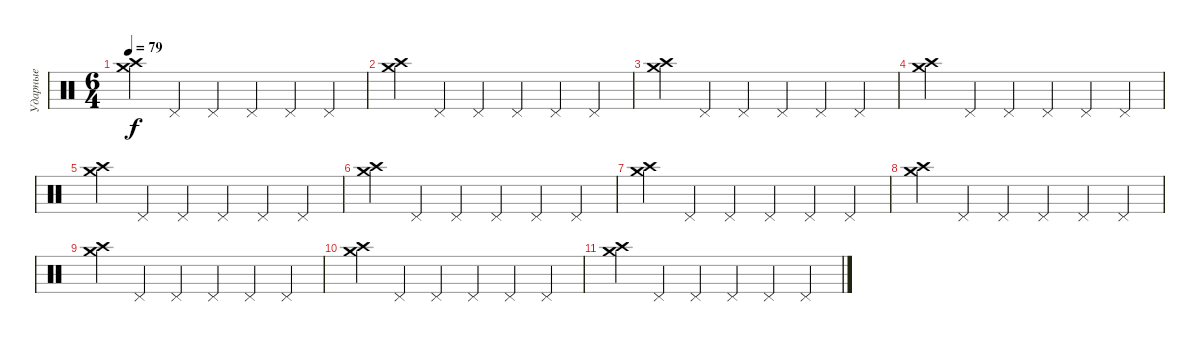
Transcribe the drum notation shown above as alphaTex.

\track ("Ударные" "Ударные") {instrument percussion}
\staff {score}
\articulation defaults
\ts (6 4)
\tempo 79
\clef neutral
\ks c
("Crash high (hit)" "Crash medium (hit)").4{dy f} "Pedal Hi-Hat (hit)".4 "Pedal Hi-Hat (hit)".4 "Pedal Hi-Hat (hit)".4 "Pedal Hi-Hat (hit)".4 "Pedal Hi-Hat (hit)".4 |
("Crash high (hit)" "Crash medium (hit)").4 "Pedal Hi-Hat (hit)".4 "Pedal Hi-Hat (hit)".4 "Pedal Hi-Hat (hit)".4 "Pedal Hi-Hat (hit)".4 "Pedal Hi-Hat (hit)".4 |
("Crash high (hit)" "Crash medium (hit)").4 "Pedal Hi-Hat (hit)".4 "Pedal Hi-Hat (hit)".4 "Pedal Hi-Hat (hit)".4 "Pedal Hi-Hat (hit)".4 "Pedal Hi-Hat (hit)".4 |
("Crash high (hit)" "Crash medium (hit)").4 "Pedal Hi-Hat (hit)".4 "Pedal Hi-Hat (hit)".4 "Pedal Hi-Hat (hit)".4 "Pedal Hi-Hat (hit)".4 "Pedal Hi-Hat (hit)".4 |
("Crash high (hit)" "Crash medium (hit)").4 "Pedal Hi-Hat (hit)".4 "Pedal Hi-Hat (hit)".4 "Pedal Hi-Hat (hit)".4 "Pedal Hi-Hat (hit)".4 "Pedal Hi-Hat (hit)".4 |
("Crash high (hit)" "Crash medium (hit)").4 "Pedal Hi-Hat (hit)".4 "Pedal Hi-Hat (hit)".4 "Pedal Hi-Hat (hit)".4 "Pedal Hi-Hat (hit)".4 "Pedal Hi-Hat (hit)".4 |
("Crash high (hit)" "Crash medium (hit)").4 "Pedal Hi-Hat (hit)".4 "Pedal Hi-Hat (hit)".4 "Pedal Hi-Hat (hit)".4 "Pedal Hi-Hat (hit)".4 "Pedal Hi-Hat (hit)".4 |
("Crash high (hit)" "Crash medium (hit)").4 "Pedal Hi-Hat (hit)".4 "Pedal Hi-Hat (hit)".4 "Pedal Hi-Hat (hit)".4 "Pedal Hi-Hat (hit)".4 "Pedal Hi-Hat (hit)".4 |
("Crash high (hit)" "Crash medium (hit)").4 "Pedal Hi-Hat (hit)".4 "Pedal Hi-Hat (hit)".4 "Pedal Hi-Hat (hit)".4 "Pedal Hi-Hat (hit)".4 "Pedal Hi-Hat (hit)".4 |
("Crash high (hit)" "Crash medium (hit)").4 "Pedal Hi-Hat (hit)".4 "Pedal Hi-Hat (hit)".4 "Pedal Hi-Hat (hit)".4 "Pedal Hi-Hat (hit)".4 "Pedal Hi-Hat (hit)".4 |
("Crash high (hit)" "Crash medium (hit)").4 "Pedal Hi-Hat (hit)".4 "Pedal Hi-Hat (hit)".4 "Pedal Hi-Hat (hit)".4 "Pedal Hi-Hat (hit)".4 "Pedal Hi-Hat (hit)".4
